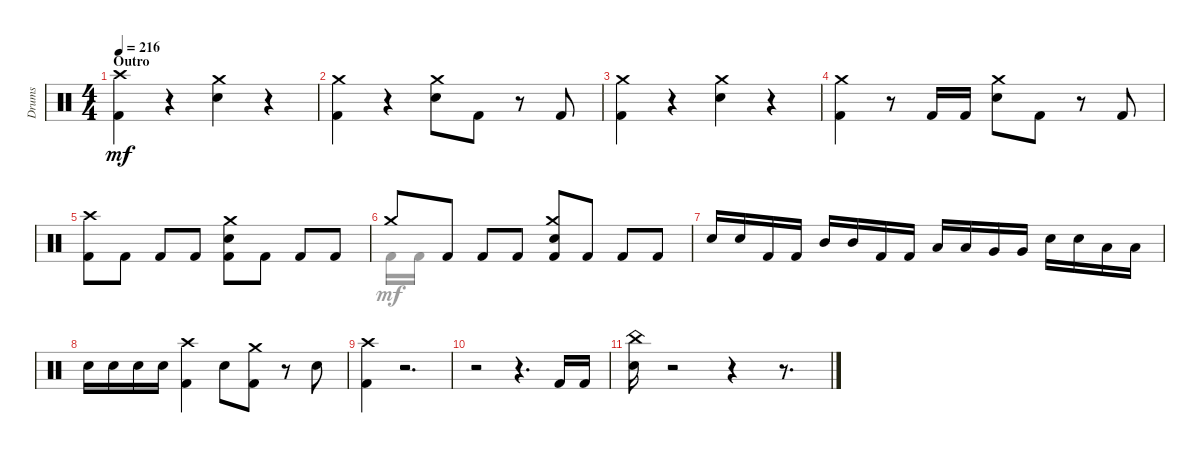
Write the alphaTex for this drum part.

\track ("Drums" "Drums") {instrument percussion}
\staff {score}
\articulation defaults
\voice
\ts (4 4)
\section ("" "Outro")
\tempo 216
\clef neutral
\ks aminor
("Kick (hit) 2" "Crash high (hit)").4{dy mf} r.4 ("Snare (hit) 2" "Crash medium (hit)").4 r.4 |
("Kick (hit) 2" "Crash medium (hit)").4 r.4 ("Snare (hit) 2" "Crash medium (hit)").8 "Kick (hit) 2".8 r.8 "Kick (hit) 2".8 |
("Kick (hit) 2" "Crash medium (hit)").4 r.4 ("Crash medium (hit)" "Snare (hit) 2").4 r.4 |
("Kick (hit) 2" "Crash medium (hit)").4 r.8 "Kick (hit) 2".16 "Kick (hit) 2".16 ("Snare (hit) 2" "Crash medium (hit)").8 "Kick (hit) 2".8 r.8 "Kick (hit) 2".8 |
("Kick (hit) 2" "Crash high (hit)").8 "Kick (hit) 2".8 "Kick (hit) 2".8 "Kick (hit) 2".8 ("Kick (hit) 2" "Crash medium (hit)" "Snare (hit) 2").8 "Kick (hit) 2".8 "Kick (hit) 2".8 "Kick (hit) 2".8 |
"Crash medium (hit)".8 "Kick (hit) 2".8 "Kick (hit) 2".8 "Kick (hit) 2".8 ("Crash medium (hit)" "Snare (hit) 2" "Kick (hit) 2").8 "Kick (hit) 2".8 "Kick (hit) 2".8 "Kick (hit) 2".8 |
"Snare (hit) 2".16 "Snare (hit) 2".16 "Kick (hit) 2".16 "Kick (hit) 2".16 "Mid Tom (hit)".16 "Mid Tom (hit)".16 "Kick (hit) 2".16 "Kick (hit) 2".16 "Low Tom (hit)".16 "Low Tom (hit)".16 "Very Low Tom (hit)".16 "Very Low Tom (hit)".16 "Snare (hit) 2".16 "Snare (hit) 2".16 "Low Floor Tom (hit)".16 "Low Floor Tom (hit)".16 |
"Snare (hit) 2".16 "Snare (hit) 2".16 "Snare (hit) 2".16 "Snare (hit) 2".16 ("Crash high (hit)" "Kick (hit) 2").4 "Snare (hit) 2".8 ("Crash medium (hit)" "Kick (hit) 2").8 r.8 "Snare (hit) 2".8 |
("Kick (hit) 2" "Crash high (hit)").4 r.2{d} |
r.2 r.4{d} "Kick (hit) 2".16 "Kick (hit) 2".16 |
("China (hit)" "Snare (hit) 2").16 r.2 r.4 r.8{d}
\voice
\clef neutral
\ottava regular
\simile none
\ks aminor
|
|
|
|
|
"Kick (hit) 2".16 "Kick (hit) 2".16 |
|
|
|
|
